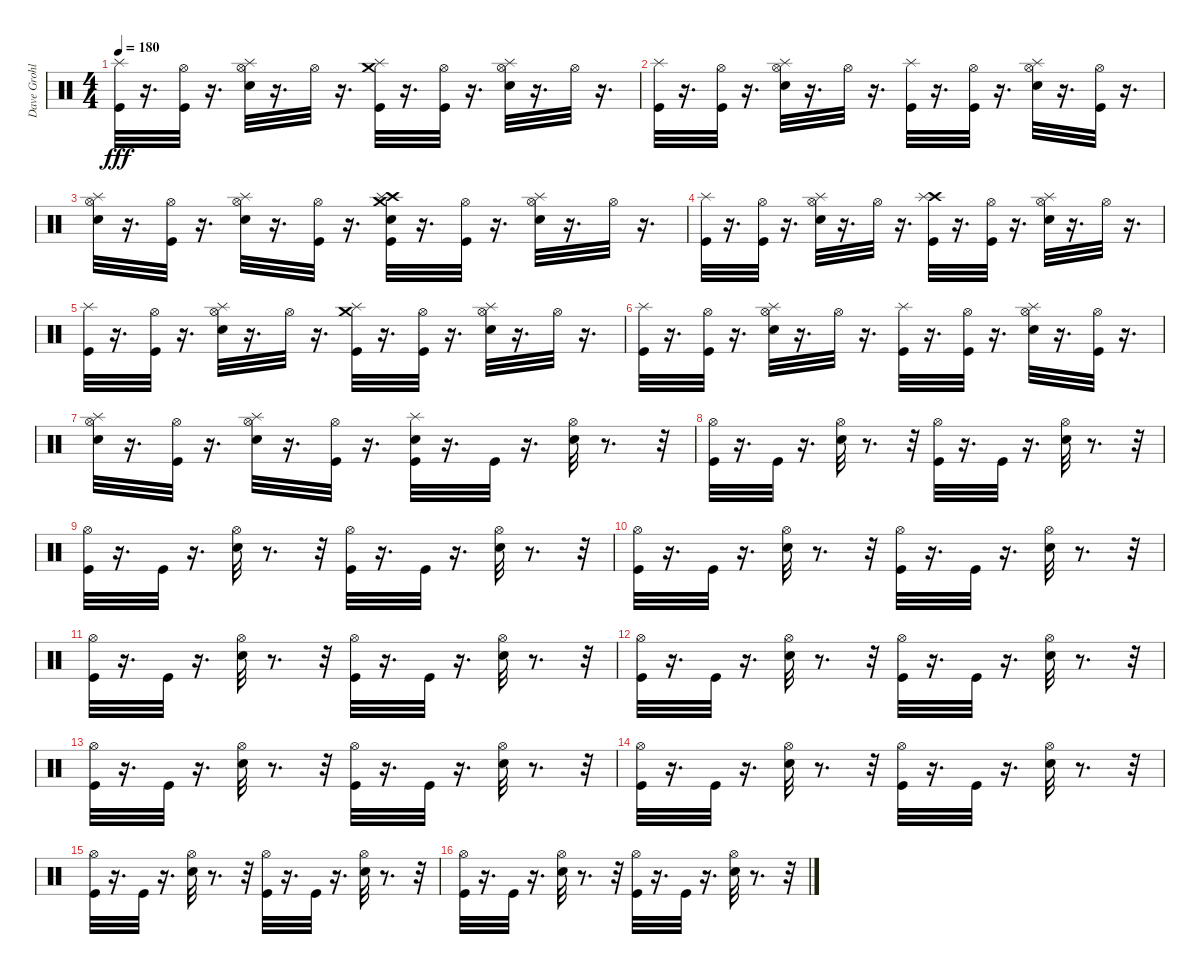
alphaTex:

\track ("Dave Grohl - Drums" "Dave Grohl") {instrument percussion}
\staff {score}
\articulation defaults
\ts (4 4)
\tempo 180
\clef neutral
\ks c
("Splash (hit)" "Kick (hit)").32{dy fff} r.16{d} ("Hi-Hat (open)" "Kick (hit)").32 r.16{d} ("Splash (hit)" "Hi-Hat (open)" "Snare (hit) 2").32 r.16{d} "Hi-Hat (open)".32 r.16{d} ("Crash medium (hit)" "Splash (hit)" "Kick (hit)").32 r.16{d} ("Hi-Hat (open)" "Kick (hit)").32 r.16{d} ("Splash (hit)" "Hi-Hat (open)" "Snare (hit) 2").32 r.16{d} "Hi-Hat (open)".32 r.16{d} |
("Splash (hit)" "Kick (hit)").32 r.16{d} ("Hi-Hat (open)" "Kick (hit)").32 r.16{d} ("Splash (hit)" "Hi-Hat (open)" "Snare (hit) 2").32 r.16{d} "Hi-Hat (open)".32 r.16{d} ("Splash (hit)" "Kick (hit)").32 r.16{d} ("Hi-Hat (open)" "Kick (hit)").32 r.16{d} ("Splash (hit)" "Hi-Hat (open)" "Snare (hit) 2").32 r.16{d} ("Hi-Hat (open)" "Kick (hit)").32 r.16{d} |
("Splash (hit)" "Hi-Hat (open)" "Snare (hit) 2").32 r.16{d} ("Hi-Hat (open)" "Kick (hit)").32 r.16{d} ("Splash (hit)" "Hi-Hat (open)" "Snare (hit) 2").32 r.16{d} ("Hi-Hat (open)" "Kick (hit)").32 r.16{d} ("Crash high (hit)" "Crash medium (hit)" "Splash (hit)" "Snare (hit) 2" "Kick (hit)").32 r.16{d} ("Hi-Hat (open)" "Kick (hit)").32 r.16{d} ("Splash (hit)" "Hi-Hat (open)" "Snare (hit) 2").32 r.16{d} "Hi-Hat (open)".32 r.16{d} |
("Splash (hit)" "Kick (hit)").32 r.16{d} ("Hi-Hat (open)" "Kick (hit)").32 r.16{d} ("Splash (hit)" "Hi-Hat (open)" "Snare (hit) 2").32 r.16{d} "Hi-Hat (open)".32 r.16{d} ("Crash high (hit)" "Splash (hit)" "Kick (hit)").32 r.16{d} ("Hi-Hat (open)" "Kick (hit)").32 r.16{d} ("Splash (hit)" "Hi-Hat (open)" "Snare (hit) 2").32 r.16{d} "Hi-Hat (open)".32 r.16{d} |
("Splash (hit)" "Kick (hit)").32 r.16{d} ("Hi-Hat (open)" "Kick (hit)").32 r.16{d} ("Splash (hit)" "Hi-Hat (open)" "Snare (hit) 2").32 r.16{d} "Hi-Hat (open)".32 r.16{d} ("Crash medium (hit)" "Splash (hit)" "Kick (hit)").32 r.16{d} ("Hi-Hat (open)" "Kick (hit)").32 r.16{d} ("Splash (hit)" "Hi-Hat (open)" "Snare (hit) 2").32 r.16{d} "Hi-Hat (open)".32 r.16{d} |
("Splash (hit)" "Kick (hit)").32 r.16{d} ("Hi-Hat (open)" "Kick (hit)").32 r.16{d} ("Splash (hit)" "Hi-Hat (open)" "Snare (hit) 2").32 r.16{d} "Hi-Hat (open)".32 r.16{d} ("Splash (hit)" "Kick (hit)").32 r.16{d} ("Hi-Hat (open)" "Kick (hit)").32 r.16{d} ("Splash (hit)" "Hi-Hat (open)" "Snare (hit) 2").32 r.16{d} ("Hi-Hat (open)" "Kick (hit)").32 r.16{d} |
("Splash (hit)" "Hi-Hat (open)" "Snare (hit) 2").32 r.16{d} ("Hi-Hat (open)" "Kick (hit)").32 r.16{d} ("Splash (hit)" "Hi-Hat (open)" "Snare (hit) 2").32 r.16{d} ("Hi-Hat (open)" "Kick (hit)").32 r.16{d} ("Splash (hit)" "Snare (hit) 2" "Kick (hit)").32 r.16{d} "Kick (hit)".32 r.16{d} ("Hi-Hat (open)" "Snare (hit) 2").32 r.8{d} r.32 |
("Hi-Hat (open)" "Kick (hit)").32 r.16{d} "Kick (hit)".32 r.16{d} ("Hi-Hat (open)" "Snare (hit) 2").32 r.8{d} r.32 ("Hi-Hat (open)" "Kick (hit)").32 r.16{d} "Kick (hit)".32 r.16{d} ("Hi-Hat (open)" "Snare (hit) 2").32 r.8{d} r.32 |
("Hi-Hat (open)" "Kick (hit)").32 r.16{d} "Kick (hit)".32 r.16{d} ("Hi-Hat (open)" "Snare (hit) 2").32 r.8{d} r.32 ("Hi-Hat (open)" "Kick (hit)").32 r.16{d} "Kick (hit)".32 r.16{d} ("Hi-Hat (open)" "Snare (hit) 2").32 r.8{d} r.32 |
("Hi-Hat (open)" "Kick (hit)").32 r.16{d} "Kick (hit)".32 r.16{d} ("Hi-Hat (open)" "Snare (hit) 2").32 r.8{d} r.32 ("Hi-Hat (open)" "Kick (hit)").32 r.16{d} "Kick (hit)".32 r.16{d} ("Hi-Hat (open)" "Snare (hit) 2").32 r.8{d} r.32 |
("Hi-Hat (open)" "Kick (hit)").32 r.16{d} "Kick (hit)".32 r.16{d} ("Hi-Hat (open)" "Snare (hit) 2").32 r.8{d} r.32 ("Hi-Hat (open)" "Kick (hit)").32 r.16{d} "Kick (hit)".32 r.16{d} ("Hi-Hat (open)" "Snare (hit) 2").32 r.8{d} r.32 |
("Hi-Hat (open)" "Kick (hit)").32 r.16{d} "Kick (hit)".32 r.16{d} ("Hi-Hat (open)" "Snare (hit) 2").32 r.8{d} r.32 ("Hi-Hat (open)" "Kick (hit)").32 r.16{d} "Kick (hit)".32 r.16{d} ("Hi-Hat (open)" "Snare (hit) 2").32 r.8{d} r.32 |
("Hi-Hat (open)" "Kick (hit)").32 r.16{d} "Kick (hit)".32 r.16{d} ("Hi-Hat (open)" "Snare (hit) 2").32 r.8{d} r.32 ("Hi-Hat (open)" "Kick (hit)").32 r.16{d} "Kick (hit)".32 r.16{d} ("Hi-Hat (open)" "Snare (hit) 2").32 r.8{d} r.32 |
("Hi-Hat (open)" "Kick (hit)").32 r.16{d} "Kick (hit)".32 r.16{d} ("Hi-Hat (open)" "Snare (hit) 2").32 r.8{d} r.32 ("Hi-Hat (open)" "Kick (hit)").32 r.16{d} "Kick (hit)".32 r.16{d} ("Hi-Hat (open)" "Snare (hit) 2").32 r.8{d} r.32 |
("Hi-Hat (open)" "Kick (hit)").32 r.16{d} "Kick (hit)".32 r.16{d} ("Hi-Hat (open)" "Snare (hit) 2").32 r.8{d} r.32 ("Hi-Hat (open)" "Kick (hit)").32 r.16{d} "Kick (hit)".32 r.16{d} ("Hi-Hat (open)" "Snare (hit) 2").32 r.8{d} r.32 |
("Hi-Hat (open)" "Kick (hit)").32 r.16{d} "Kick (hit)".32 r.16{d} ("Hi-Hat (open)" "Snare (hit) 2").32 r.8{d} r.32 ("Hi-Hat (open)" "Kick (hit)").32 r.16{d} "Kick (hit)".32 r.16{d} ("Hi-Hat (open)" "Snare (hit) 2").32 r.8{d} r.32
